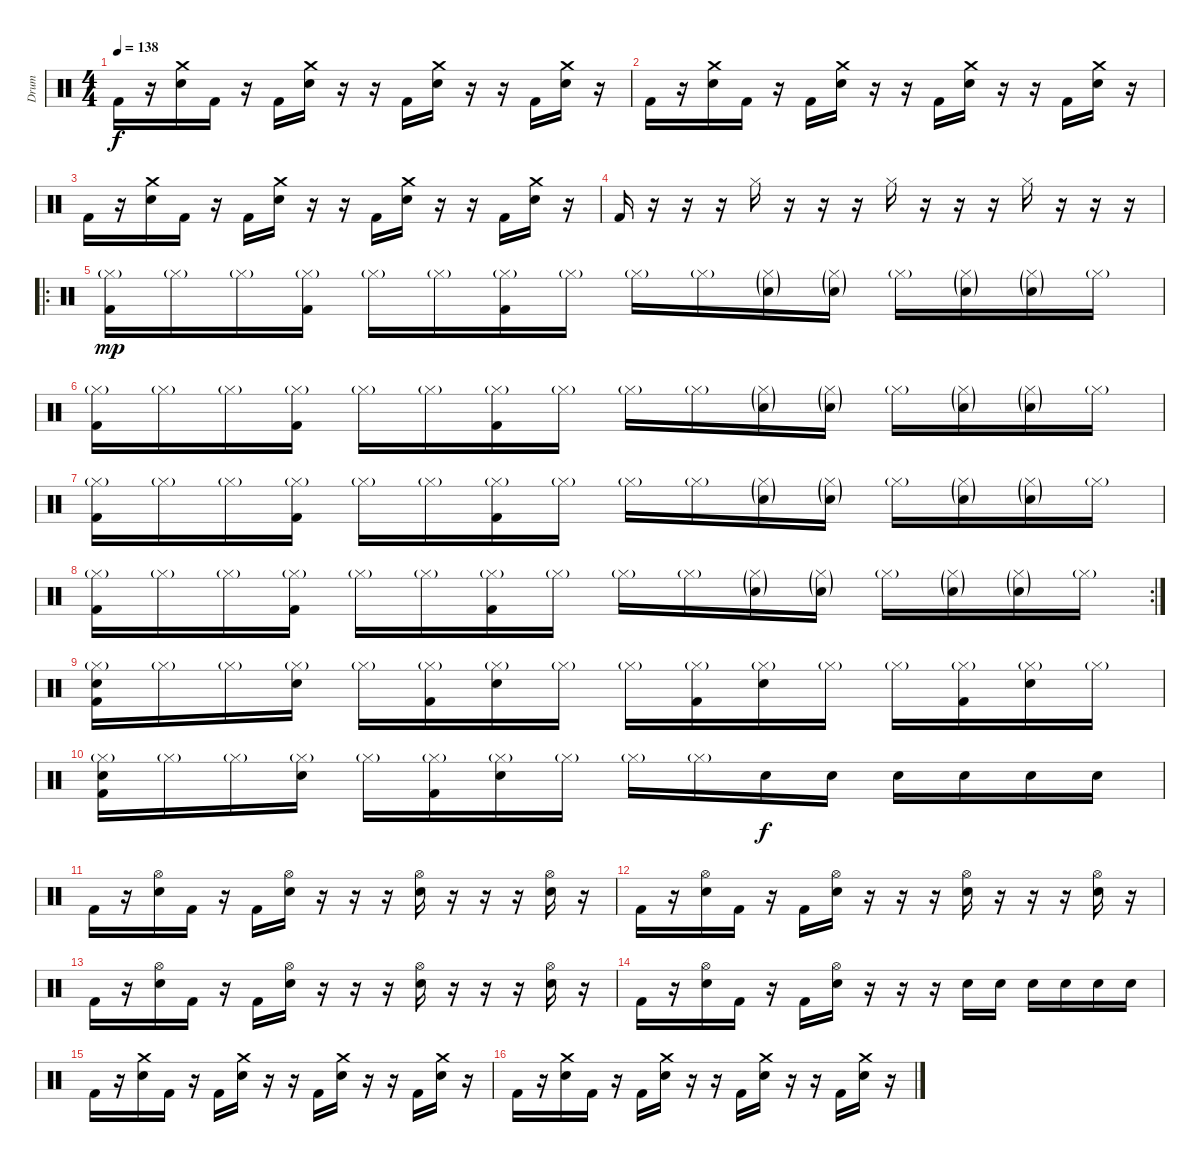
\track ("Drum" "Drum") {instrument percussion}
\staff {score}
\articulation defaults
\ts (4 4)
\tempo 138
\clef neutral
\ks c "Kick (hit) 2".16{dy f}
r.16 ("Crash medium (hit)" "Electric Snare (hit)").16 "Kick (hit) 2".16 r.16 "Kick (hit) 2".16 ("Crash medium (hit)" "Electric Snare (hit)").16 r.16 r.16 "Kick (hit) 2".16 ("Crash medium (hit)" "Electric Snare (hit)").16 r.16 r.16 "Kick (hit) 2".16 ("Crash medium (hit)" "Electric Snare (hit)").16 r.16 |
"Kick (hit) 2".16 r.16 ("Crash medium (hit)" "Electric Snare (hit)").16 "Kick (hit) 2".16 r.16 "Kick (hit) 2".16 ("Crash medium (hit)" "Electric Snare (hit)").16 r.16 r.16 "Kick (hit) 2".16 ("Crash medium (hit)" "Electric Snare (hit)").16 r.16 r.16 "Kick (hit) 2".16 ("Crash medium (hit)" "Electric Snare (hit)").16 r.16 |
"Kick (hit) 2".16 r.16 ("Crash medium (hit)" "Electric Snare (hit)").16 "Kick (hit) 2".16 r.16 "Kick (hit) 2".16 ("Crash medium (hit)" "Electric Snare (hit)").16 r.16 r.16 "Kick (hit) 2".16 ("Crash medium (hit)" "Electric Snare (hit)").16 r.16 r.16 "Kick (hit) 2".16 ("Crash medium (hit)" "Electric Snare (hit)").16 r.16 |
"Kick (hit) 2".16 r.16 r.16 r.16 "Hi-Hat (closed)".16 r.16 r.16 r.16 "Hi-Hat (closed)".16 r.16 r.16 r.16 "Hi-Hat (closed)".16 r.16 r.16 r.16 |
\ro
("Hi-Hat (closed)"{g} "Kick (hit) 2").16{dy mp} "Hi-Hat (closed)"{g}.16 "Hi-Hat (closed)"{g}.16 ("Hi-Hat (closed)"{g} "Kick (hit) 2").16 "Hi-Hat (closed)"{g}.16 "Hi-Hat (closed)"{g}.16 ("Hi-Hat (closed)"{g} "Kick (hit) 2").16 "Hi-Hat (closed)"{g}.16 "Hi-Hat (closed)"{g}.16 "Hi-Hat (closed)"{g}.16 ("Hi-Hat (closed)"{g} "Electric Snare (hit)"{g}).16 ("Hi-Hat (closed)"{g} "Electric Snare (hit)"{g}).16 "Hi-Hat (closed)"{g}.16 ("Hi-Hat (closed)"{g} "Electric Snare (hit)"{g}).16 ("Hi-Hat (closed)"{g} "Electric Snare (hit)"{g}).16 "Hi-Hat (closed)"{g}.16 |
("Hi-Hat (closed)"{g} "Kick (hit) 2").16 "Hi-Hat (closed)"{g}.16 "Hi-Hat (closed)"{g}.16 ("Hi-Hat (closed)"{g} "Kick (hit) 2").16 "Hi-Hat (closed)"{g}.16 "Hi-Hat (closed)"{g}.16 ("Hi-Hat (closed)"{g} "Kick (hit) 2").16 "Hi-Hat (closed)"{g}.16 "Hi-Hat (closed)"{g}.16 "Hi-Hat (closed)"{g}.16 ("Hi-Hat (closed)"{g} "Electric Snare (hit)"{g}).16 ("Hi-Hat (closed)"{g} "Electric Snare (hit)"{g}).16 "Hi-Hat (closed)"{g}.16 ("Hi-Hat (closed)"{g} "Electric Snare (hit)"{g}).16 ("Hi-Hat (closed)"{g} "Electric Snare (hit)"{g}).16 "Hi-Hat (closed)"{g}.16 |
("Hi-Hat (closed)"{g} "Kick (hit) 2").16 "Hi-Hat (closed)"{g}.16 "Hi-Hat (closed)"{g}.16 ("Hi-Hat (closed)"{g} "Kick (hit) 2").16 "Hi-Hat (closed)"{g}.16 "Hi-Hat (closed)"{g}.16 ("Hi-Hat (closed)"{g} "Kick (hit) 2").16 "Hi-Hat (closed)"{g}.16 "Hi-Hat (closed)"{g}.16 "Hi-Hat (closed)"{g}.16 ("Hi-Hat (closed)"{g} "Electric Snare (hit)"{g}).16 ("Hi-Hat (closed)"{g} "Electric Snare (hit)"{g}).16 "Hi-Hat (closed)"{g}.16 ("Hi-Hat (closed)"{g} "Electric Snare (hit)"{g}).16 ("Hi-Hat (closed)"{g} "Electric Snare (hit)"{g}).16 "Hi-Hat (closed)"{g}.16 |
\rc 2
("Hi-Hat (closed)"{g} "Kick (hit) 2").16 "Hi-Hat (closed)"{g}.16 "Hi-Hat (closed)"{g}.16 ("Hi-Hat (closed)"{g} "Kick (hit) 2").16 "Hi-Hat (closed)"{g}.16 "Hi-Hat (closed)"{g}.16 ("Hi-Hat (closed)"{g} "Kick (hit) 2").16 "Hi-Hat (closed)"{g}.16 "Hi-Hat (closed)"{g}.16 "Hi-Hat (closed)"{g}.16 ("Hi-Hat (closed)"{g} "Electric Snare (hit)"{g}).16 ("Hi-Hat (closed)"{g} "Electric Snare (hit)"{g}).16 "Hi-Hat (closed)"{g}.16 ("Hi-Hat (closed)"{g} "Electric Snare (hit)"{g}).16 ("Hi-Hat (closed)"{g} "Electric Snare (hit)"{g}).16 "Hi-Hat (closed)"{g}.16 |
("Hi-Hat (closed)"{g} "Electric Snare (hit)" "Kick (hit) 2").16 "Hi-Hat (closed)"{g}.16 "Hi-Hat (closed)"{g}.16 ("Hi-Hat (closed)"{g} "Electric Snare (hit)").16 "Hi-Hat (closed)"{g}.16 ("Hi-Hat (closed)"{g} "Kick (hit) 2").16 ("Hi-Hat (closed)"{g} "Electric Snare (hit)").16 "Hi-Hat (closed)"{g}.16 "Hi-Hat (closed)"{g}.16 ("Hi-Hat (closed)"{g} "Kick (hit) 2").16 ("Hi-Hat (closed)"{g} "Electric Snare (hit)").16 "Hi-Hat (closed)"{g}.16 "Hi-Hat (closed)"{g}.16 ("Hi-Hat (closed)"{g} "Kick (hit) 2").16 ("Hi-Hat (closed)"{g} "Electric Snare (hit)").16 "Hi-Hat (closed)"{g}.16 |
("Hi-Hat (closed)"{g} "Electric Snare (hit)" "Kick (hit) 2").16 "Hi-Hat (closed)"{g}.16 "Hi-Hat (closed)"{g}.16 ("Hi-Hat (closed)"{g} "Electric Snare (hit)").16 "Hi-Hat (closed)"{g}.16 ("Hi-Hat (closed)"{g} "Kick (hit) 2").16 ("Hi-Hat (closed)"{g} "Electric Snare (hit)").16 "Hi-Hat (closed)"{g}.16 "Hi-Hat (closed)"{g}.16 "Hi-Hat (closed)"{g}.16 "Electric Snare (hit)".16{dy f} "Electric Snare (hit)".16 "Electric Snare (hit)".16 "Electric Snare (hit)".16 "Electric Snare (hit)".16 "Electric Snare (hit)".16 |
"Kick (hit) 2".16 r.16 ("Hi-Hat (open)" "Electric Snare (hit)").16 "Kick (hit) 2".16 r.16 "Kick (hit) 2".16 ("Hi-Hat (open)" "Electric Snare (hit)").16 r.16 r.16 r.16 ("Hi-Hat (open)" "Electric Snare (hit)").16 r.16 r.16 r.16 ("Hi-Hat (open)" "Electric Snare (hit)").16 r.16 |
"Kick (hit) 2".16 r.16 ("Hi-Hat (open)" "Electric Snare (hit)").16 "Kick (hit) 2".16 r.16 "Kick (hit) 2".16 ("Hi-Hat (open)" "Electric Snare (hit)").16 r.16 r.16 r.16 ("Hi-Hat (open)" "Electric Snare (hit)").16 r.16 r.16 r.16 ("Hi-Hat (open)" "Electric Snare (hit)").16 r.16 |
"Kick (hit) 2".16 r.16 ("Hi-Hat (open)" "Electric Snare (hit)").16 "Kick (hit) 2".16 r.16 "Kick (hit) 2".16 ("Hi-Hat (open)" "Electric Snare (hit)").16 r.16 r.16 r.16 ("Hi-Hat (open)" "Electric Snare (hit)").16 r.16 r.16 r.16 ("Hi-Hat (open)" "Electric Snare (hit)").16 r.16 |
"Kick (hit) 2".16 r.16 ("Hi-Hat (open)" "Electric Snare (hit)").16 "Kick (hit) 2".16 r.16 "Kick (hit) 2".16 ("Hi-Hat (open)" "Electric Snare (hit)").16 r.16 r.16 r.16 "Electric Snare (hit)".16 "Electric Snare (hit)".16 "Electric Snare (hit)".16 "Electric Snare (hit)".16 "Electric Snare (hit)".16 "Electric Snare (hit)".16 |
"Kick (hit) 2".16 r.16 ("Crash medium (hit)" "Electric Snare (hit)").16 "Kick (hit) 2".16 r.16 "Kick (hit) 2".16 ("Crash medium (hit)" "Electric Snare (hit)").16 r.16 r.16 "Kick (hit) 2".16 ("Crash medium (hit)" "Electric Snare (hit)").16 r.16 r.16 "Kick (hit) 2".16 ("Crash medium (hit)" "Electric Snare (hit)").16 r.16 |
"Kick (hit) 2".16 r.16 ("Crash medium (hit)" "Electric Snare (hit)").16 "Kick (hit) 2".16 r.16 "Kick (hit) 2".16 ("Crash medium (hit)" "Electric Snare (hit)").16 r.16 r.16 "Kick (hit) 2".16 ("Crash medium (hit)" "Electric Snare (hit)").16 r.16 r.16 "Kick (hit) 2".16 ("Crash medium (hit)" "Electric Snare (hit)").16 r.16
